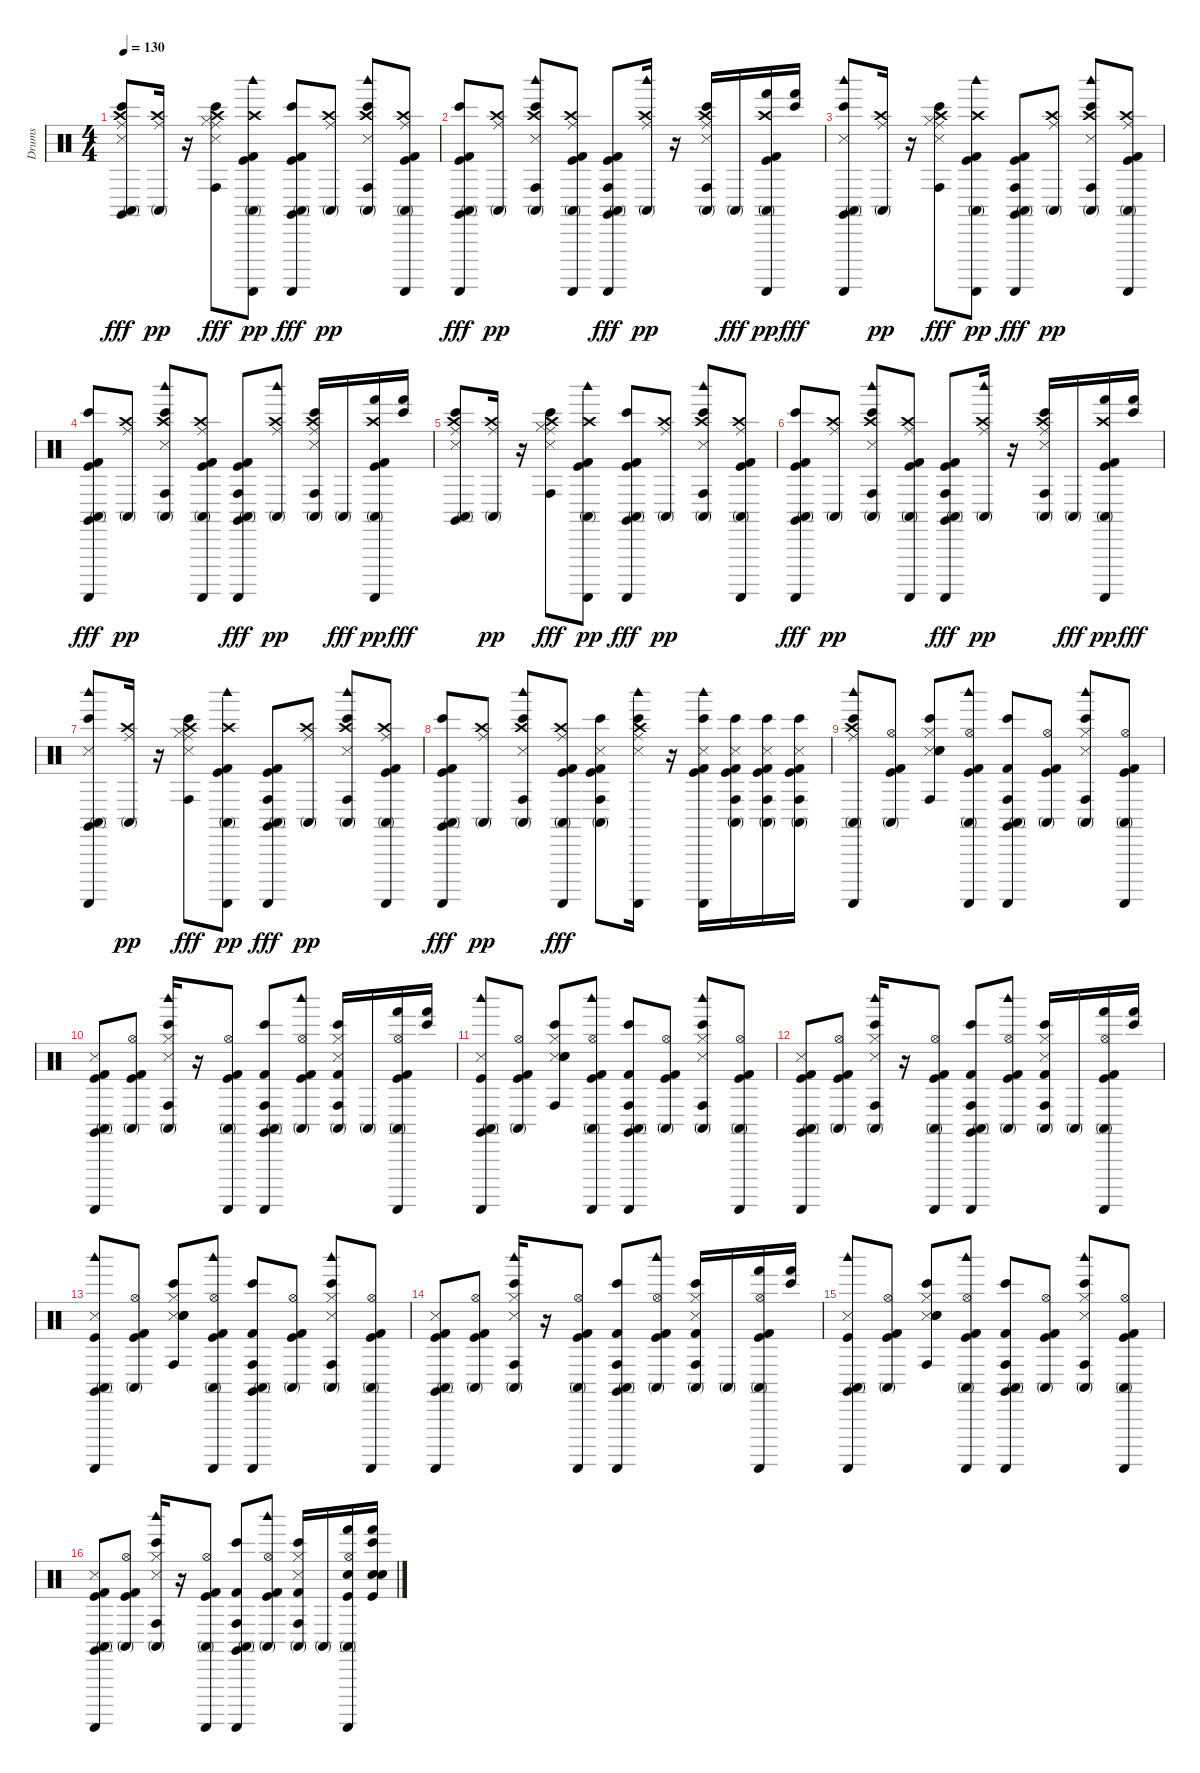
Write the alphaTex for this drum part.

\track ("Drums" "Drums") {instrument percussion}
\staff {score}
\articulation defaults
\ts (4 4)
\tempo 130
\clef neutral
\ks c
("Ride (middle)" "Crash high (hit)" "Snare (side stick) 3" "Conga high (mute)" "Bongo High (hit)" "Claves (hit)").8{dy fff} ("Conga high (mute)" "Crash high (hit)" "Ride (middle)").16{dy pp} r.16 ("Bongo High (hit)" "Conga high (hit)" "Snare (side stick) 3" "Crash high (hit)" "Ride (middle)" "Hi-Hat (closed)").8{dy fff} ("Kick (hit) 2" "Kick (hit)" "Guiro (scrap-return)" "Woodblock high (hit)" "Conga high (mute)" "Crash high (hit)").8{dy pp} ("Kick (hit) 2" "Kick (hit)" "Guiro (scrap-return)" "Claves (hit)" "Bongo High (hit)" "Conga high (mute)").8{dy fff} ("Conga high (mute)" "Crash high (hit)" "Ride (middle)").8{dy pp} ("Woodblock high (hit)" "Bongo High (hit)" "Conga high (mute)" "Conga high (hit)" "Snare (side stick) 3" "Crash high (hit)").8 ("Kick (hit) 2" "Kick (hit)" "Guiro (scrap-return)" "Conga high (mute)" "Crash high (hit)" "Ride (middle)").8 |
("Kick (hit) 2" "Kick (hit)" "Guiro (scrap-return)" "Claves (hit)" "Conga high (mute)" "Bongo High (hit)").8{dy fff} ("Conga high (mute)" "Crash high (hit)" "Ride (middle)").8{dy pp} ("Woodblock high (hit)" "Conga high (mute)" "Conga high (hit)" "Bongo High (hit)" "Snare (side stick) 3" "Crash high (hit)").8 ("Kick (hit) 2" "Kick (hit)" "Guiro (scrap-return)" "Conga high (mute)" "Crash high (hit)" "Ride (middle)").8 ("Kick (hit)" "Kick (hit) 2" "Guiro (scrap-return)" "Claves (hit)" "Conga high (mute)" "Conga high (hit)").8{dy fff} ("Woodblock high (hit)" "Conga high (mute)" "Crash high (hit)" "Ride (middle)").16{dy pp} r.16 ("Conga high (mute)" "Conga high (hit)" "Bongo High (hit)" "Snare (side stick) 3" "Crash high (hit)" "Ride (middle)").16 "Conga high (mute)".16{dy fff} ("Kick (hit) 2" "Kick (hit)" "Guiro (scrap-return)" "Hand (hit)" "Conga high (mute)" "Crash high (hit)").16{dy pp} ("Bongo High (hit)" "Hand (hit)").16{dy fff} |
("Guiro (scrap-return)" "Woodblock high (hit)" "Claves (hit)" "Conga high (mute)" "Snare (side stick) 3" "Bongo High (hit)").8 ("Conga high (mute)" "Crash high (hit)" "Ride (middle)").16{dy pp} r.16 ("Conga high (hit)" "Bongo High (hit)" "Snare (side stick) 3" "Crash high (hit)" "Ride (middle)" "Hi-Hat (closed)").8{dy fff} ("Guiro (scrap-return)" "Woodblock high (hit)" "Conga high (mute)" "Kick (hit) 2" "Kick (hit)" "Crash high (hit)").8{dy pp} ("Guiro (scrap-return)" "Claves (hit)" "Conga high (mute)" "Conga high (hit)" "Kick (hit) 2" "Kick (hit)").8{dy fff} ("Conga high (mute)" "Crash high (hit)" "Ride (middle)").8{dy pp} ("Woodblock high (hit)" "Conga high (mute)" "Conga high (hit)" "Bongo High (hit)" "Snare (side stick) 3" "Crash high (hit)").8 ("Guiro (scrap-return)" "Conga high (mute)" "Kick (hit) 2" "Kick (hit)" "Crash high (hit)" "Ride (middle)").8 |
("Guiro (scrap-return)" "Claves (hit)" "Conga high (mute)" "Kick (hit) 2" "Kick (hit)" "Bongo High (hit)").8{dy fff} ("Conga high (mute)" "Crash high (hit)" "Ride (middle)").8{dy pp} ("Woodblock high (hit)" "Conga high (mute)" "Conga high (hit)" "Bongo High (hit)" "Snare (side stick) 3" "Crash high (hit)").8 ("Guiro (scrap-return)" "Conga high (mute)" "Kick (hit) 2" "Kick (hit)" "Crash high (hit)" "Ride (middle)").8 ("Guiro (scrap-return)" "Claves (hit)" "Conga high (mute)" "Conga high (hit)" "Kick (hit)" "Kick (hit) 2").8{dy fff} ("Woodblock high (hit)" "Conga high (mute)" "Crash high (hit)" "Ride (middle)").8{dy pp} ("Conga high (mute)" "Conga high (hit)" "Bongo High (hit)" "Snare (side stick) 3" "Crash high (hit)" "Ride (middle)").16 "Conga high (mute)".16{dy fff} ("Guiro (scrap-return)" "Hand (hit)" "Conga high (mute)" "Kick (hit) 2" "Kick (hit)" "Crash high (hit)").16{dy pp} ("Bongo High (hit)" "Hand (hit)").16{dy fff} |
("Ride (middle)" "Crash high (hit)" "Snare (side stick) 3" "Conga high (mute)" "Bongo High (hit)" "Claves (hit)").8 ("Conga high (mute)" "Crash high (hit)" "Ride (middle)").16{dy pp} r.16 ("Bongo High (hit)" "Conga high (hit)" "Snare (side stick) 3" "Crash high (hit)" "Ride (middle)" "Hi-Hat (closed)").8{dy fff} ("Kick (hit) 2" "Kick (hit)" "Guiro (scrap-return)" "Woodblock high (hit)" "Conga high (mute)" "Crash high (hit)").8{dy pp} ("Kick (hit) 2" "Kick (hit)" "Guiro (scrap-return)" "Claves (hit)" "Bongo High (hit)" "Conga high (mute)").8{dy fff} ("Conga high (mute)" "Crash high (hit)" "Ride (middle)").8{dy pp} ("Woodblock high (hit)" "Bongo High (hit)" "Conga high (mute)" "Conga high (hit)" "Snare (side stick) 3" "Crash high (hit)").8 ("Kick (hit) 2" "Kick (hit)" "Guiro (scrap-return)" "Conga high (mute)" "Crash high (hit)" "Ride (middle)").8 |
("Kick (hit) 2" "Kick (hit)" "Guiro (scrap-return)" "Claves (hit)" "Conga high (mute)" "Bongo High (hit)").8{dy fff} ("Conga high (mute)" "Crash high (hit)" "Ride (middle)").8{dy pp} ("Woodblock high (hit)" "Conga high (mute)" "Conga high (hit)" "Bongo High (hit)" "Snare (side stick) 3" "Crash high (hit)").8 ("Kick (hit) 2" "Kick (hit)" "Guiro (scrap-return)" "Conga high (mute)" "Crash high (hit)" "Ride (middle)").8 ("Kick (hit)" "Kick (hit) 2" "Guiro (scrap-return)" "Claves (hit)" "Conga high (mute)" "Conga high (hit)").8{dy fff} ("Woodblock high (hit)" "Conga high (mute)" "Crash high (hit)" "Ride (middle)").16{dy pp} r.16 ("Conga high (mute)" "Conga high (hit)" "Bongo High (hit)" "Snare (side stick) 3" "Crash high (hit)" "Ride (middle)").16 "Conga high (mute)".16{dy fff} ("Kick (hit) 2" "Kick (hit)" "Guiro (scrap-return)" "Hand (hit)" "Conga high (mute)" "Crash high (hit)").16{dy pp} ("Bongo High (hit)" "Hand (hit)").16{dy fff} |
("Guiro (scrap-return)" "Woodblock high (hit)" "Claves (hit)" "Conga high (mute)" "Snare (side stick) 3" "Bongo High (hit)").8 ("Conga high (mute)" "Crash high (hit)" "Ride (middle)").16{dy pp} r.16 ("Conga high (hit)" "Bongo High (hit)" "Snare (side stick) 3" "Crash high (hit)" "Ride (middle)" "Hi-Hat (closed)").8{dy fff} ("Guiro (scrap-return)" "Woodblock high (hit)" "Conga high (mute)" "Kick (hit) 2" "Kick (hit)" "Crash high (hit)").8{dy pp} ("Guiro (scrap-return)" "Claves (hit)" "Conga high (mute)" "Conga high (hit)" "Kick (hit) 2" "Kick (hit)").8{dy fff} ("Conga high (mute)" "Crash high (hit)" "Ride (middle)").8{dy pp} ("Woodblock high (hit)" "Conga high (mute)" "Conga high (hit)" "Bongo High (hit)" "Snare (side stick) 3" "Crash high (hit)").8 ("Guiro (scrap-return)" "Conga high (mute)" "Kick (hit) 2" "Kick (hit)" "Crash high (hit)" "Ride (middle)").8 |
("Guiro (scrap-return)" "Claves (hit)" "Conga high (mute)" "Kick (hit) 2" "Kick (hit)" "Bongo High (hit)").8{dy fff} ("Conga high (mute)" "Crash high (hit)" "Ride (middle)").8{dy pp} ("Woodblock high (hit)" "Conga high (mute)" "Conga high (hit)" "Bongo High (hit)" "Snare (side stick) 3" "Crash high (hit)").8 ("Conga high (mute)" "Kick (hit) 2" "Kick (hit)" "Crash high (hit)" "Ride (middle)" "Guiro (scrap-return)").8{dy fff} ("Conga high (mute)" "Conga high (hit)" "Kick (hit)" "Kick (hit) 2" "Bongo High (hit)" "Snare (side stick) 3").8 ("Woodblock high (hit)" "Guiro (scrap-return)" "Ride (middle)" "Crash high (hit)" "Snare (side stick) 3" "Bongo High (hit)").16 r.16 ("Woodblock high (hit)" "Guiro (scrap-return)" "Snare (side stick) 3" "Bongo High (hit)" "Kick (hit) 2" "Kick (hit)").16 ("Conga high (mute)" "Conga high (hit)" "Kick (hit)" "Kick (hit) 2" "Bongo High (hit)" "Snare (side stick) 3").16 ("Conga high (mute)" "Conga high (hit)" "Kick (hit)" "Kick (hit) 2" "Bongo High (hit)" "Snare (side stick) 3").16 ("Conga high (mute)" "Conga high (hit)" "Kick (hit)" "Kick (hit) 2" "Bongo High (hit)" "Snare (side stick) 3").16 |
("Guiro (scrap-return)" "Woodblock high (hit)" "Bongo High (hit)" "Conga high (mute)" "Crash high (hit)" "Ride (middle)").8 ("Conga high (mute)" "Hi-Hat (open)" "Kick (hit)" "Kick (hit) 2").8 ("Bongo High (hit)" "Conga high (hit)" "Snare (side stick) 3" "Hi-Hat (closed)" "Electric Snare (hit)" "Snare (hit) 2").8 ("Kick (hit) 2" "Kick (hit)" "Guiro (scrap-return)" "Woodblock high (hit)" "Conga high (mute)" "Hi-Hat (open)").8 ("Kick (hit) 2" "Guiro (scrap-return)" "Claves (hit)" "Bongo High (hit)" "Conga high (mute)" "Conga high (hit)").8 ("Conga high (mute)" "Hi-Hat (open)" "Kick (hit) 2" "Kick (hit)").8 ("Woodblock high (hit)" "Bongo High (hit)" "Conga high (mute)" "Conga high (hit)" "Snare (side stick) 3" "Hi-Hat (closed)").8 ("Kick (hit) 2" "Kick (hit)" "Guiro (scrap-return)" "Conga high (mute)" "Hi-Hat (open)").8 |
("Guiro (scrap-return)" "Claves (hit)" "Conga high (mute)" "Snare (side stick) 3" "Kick (hit)" "Kick (hit) 2").8 ("Conga high (mute)" "Hi-Hat (open)" "Kick (hit)" "Kick (hit) 2").8 ("Woodblock high (hit)" "Conga high (mute)" "Conga high (hit)" "Bongo High (hit)" "Snare (side stick) 3" "Hi-Hat (closed)").16 r.16 ("Guiro (scrap-return)" "Conga high (mute)" "Kick (hit) 2" "Kick (hit)" "Hi-Hat (open)").8 ("Guiro (scrap-return)" "Claves (hit)" "Conga high (mute)" "Conga high (hit)" "Kick (hit) 2" "Bongo High (hit)").8 ("Woodblock high (hit)" "Conga high (mute)" "Hi-Hat (open)" "Kick (hit) 2" "Kick (hit)").8 ("Conga high (mute)" "Conga high (hit)" "Bongo High (hit)" "Snare (side stick) 3" "Hi-Hat (closed)" "Kick (hit) 2").16 "Conga high (mute)".16 ("Guiro (scrap-return)" "Hand (hit)" "Conga high (mute)" "Kick (hit) 2" "Kick (hit)" "Hi-Hat (open)").16 ("Bongo High (hit)" "Hand (hit)").16 |
("Guiro (scrap-return)" "Woodblock high (hit)" "Claves (hit)" "Conga high (mute)" "Snare (side stick) 3" "Kick (hit)").8 ("Conga high (mute)" "Hi-Hat (open)" "Kick (hit)" "Kick (hit) 2").8 ("Conga high (hit)" "Bongo High (hit)" "Snare (side stick) 3" "Hi-Hat (closed)" "Electric Snare (hit)" "Snare (hit) 2").8 ("Guiro (scrap-return)" "Woodblock high (hit)" "Conga high (mute)" "Kick (hit) 2" "Kick (hit)" "Hi-Hat (open)").8 ("Guiro (scrap-return)" "Claves (hit)" "Conga high (mute)" "Conga high (hit)" "Kick (hit) 2" "Bongo High (hit)").8 ("Conga high (mute)" "Hi-Hat (open)" "Kick (hit) 2" "Kick (hit)").8 ("Woodblock high (hit)" "Conga high (mute)" "Conga high (hit)" "Bongo High (hit)" "Snare (side stick) 3" "Hi-Hat (closed)").8 ("Guiro (scrap-return)" "Conga high (mute)" "Kick (hit) 2" "Kick (hit)" "Hi-Hat (open)").8 |
("Guiro (scrap-return)" "Claves (hit)" "Conga high (mute)" "Snare (side stick) 3" "Kick (hit)" "Kick (hit) 2").8 ("Conga high (mute)" "Hi-Hat (open)" "Kick (hit)" "Kick (hit) 2").8 ("Woodblock high (hit)" "Conga high (mute)" "Conga high (hit)" "Bongo High (hit)" "Snare (side stick) 3" "Hi-Hat (closed)").16 r.16 ("Guiro (scrap-return)" "Conga high (mute)" "Kick (hit) 2" "Kick (hit)" "Hi-Hat (open)").8 ("Guiro (scrap-return)" "Claves (hit)" "Conga high (mute)" "Conga high (hit)" "Kick (hit) 2" "Bongo High (hit)").8 ("Woodblock high (hit)" "Conga high (mute)" "Hi-Hat (open)" "Kick (hit) 2" "Kick (hit)").8 ("Conga high (mute)" "Conga high (hit)" "Bongo High (hit)" "Snare (side stick) 3" "Hi-Hat (closed)" "Kick (hit) 2").16 "Conga high (mute)".16 ("Guiro (scrap-return)" "Hand (hit)" "Conga high (mute)" "Kick (hit) 2" "Kick (hit)" "Hi-Hat (open)").16 ("Bongo High (hit)" "Hand (hit)").16 |
("Conga high (mute)" "Claves (hit)" "Woodblock high (hit)" "Guiro (scrap-return)" "Snare (side stick) 3" "Kick (hit)").8 ("Conga high (mute)" "Hi-Hat (open)" "Kick (hit)" "Kick (hit) 2").8 ("Conga high (hit)" "Bongo High (hit)" "Snare (side stick) 3" "Hi-Hat (closed)" "Electric Snare (hit)" "Snare (hit) 2").8 ("Guiro (scrap-return)" "Woodblock high (hit)" "Conga high (mute)" "Kick (hit) 2" "Kick (hit)" "Hi-Hat (open)").8 ("Guiro (scrap-return)" "Claves (hit)" "Conga high (mute)" "Conga high (hit)" "Kick (hit) 2" "Bongo High (hit)").8 ("Conga high (mute)" "Hi-Hat (open)" "Kick (hit) 2" "Kick (hit)").8 ("Woodblock high (hit)" "Conga high (mute)" "Conga high (hit)" "Bongo High (hit)" "Snare (side stick) 3" "Hi-Hat (closed)").8 ("Guiro (scrap-return)" "Conga high (mute)" "Kick (hit) 2" "Kick (hit)" "Hi-Hat (open)").8 |
("Guiro (scrap-return)" "Claves (hit)" "Conga high (mute)" "Snare (side stick) 3" "Kick (hit)" "Kick (hit) 2").8 ("Conga high (mute)" "Hi-Hat (open)" "Kick (hit)" "Kick (hit) 2").8 ("Woodblock high (hit)" "Conga high (mute)" "Conga high (hit)" "Bongo High (hit)" "Snare (side stick) 3" "Hi-Hat (closed)").16 r.16 ("Guiro (scrap-return)" "Conga high (mute)" "Kick (hit) 2" "Kick (hit)" "Hi-Hat (open)").8 ("Guiro (scrap-return)" "Claves (hit)" "Conga high (mute)" "Conga high (hit)" "Kick (hit) 2" "Bongo High (hit)").8 ("Woodblock high (hit)" "Conga high (mute)" "Hi-Hat (open)" "Kick (hit) 2" "Kick (hit)").8 ("Conga high (mute)" "Conga high (hit)" "Bongo High (hit)" "Snare (side stick) 3" "Hi-Hat (closed)" "Kick (hit) 2").16 "Conga high (mute)".16 ("Guiro (scrap-return)" "Hand (hit)" "Conga high (mute)" "Kick (hit) 2" "Kick (hit)" "Hi-Hat (open)").16 ("Bongo High (hit)" "Hand (hit)").16 |
("Guiro (scrap-return)" "Woodblock high (hit)" "Claves (hit)" "Conga high (mute)" "Snare (side stick) 3" "Kick (hit)").8 ("Conga high (mute)" "Hi-Hat (open)" "Kick (hit)" "Kick (hit) 2").8 ("Conga high (hit)" "Bongo High (hit)" "Snare (side stick) 3" "Hi-Hat (closed)" "Electric Snare (hit)" "Snare (hit) 2").8 ("Guiro (scrap-return)" "Woodblock high (hit)" "Conga high (mute)" "Kick (hit) 2" "Kick (hit)" "Hi-Hat (open)").8 ("Guiro (scrap-return)" "Claves (hit)" "Conga high (mute)" "Conga high (hit)" "Kick (hit) 2" "Bongo High (hit)").8 ("Conga high (mute)" "Hi-Hat (open)" "Kick (hit) 2" "Kick (hit)").8 ("Woodblock high (hit)" "Conga high (mute)" "Conga high (hit)" "Bongo High (hit)" "Snare (side stick) 3" "Hi-Hat (closed)").8 ("Guiro (scrap-return)" "Conga high (mute)" "Kick (hit) 2" "Kick (hit)" "Hi-Hat (open)").8 |
("Guiro (scrap-return)" "Claves (hit)" "Conga high (mute)" "Snare (side stick) 3" "Kick (hit)" "Kick (hit) 2").8 ("Conga high (mute)" "Hi-Hat (open)" "Kick (hit)" "Kick (hit) 2").8 ("Woodblock high (hit)" "Conga high (mute)" "Conga high (hit)" "Bongo High (hit)" "Snare (side stick) 3" "Hi-Hat (closed)").16 r.16 ("Guiro (scrap-return)" "Conga high (mute)" "Kick (hit) 2" "Kick (hit)" "Hi-Hat (open)").8 ("Guiro (scrap-return)" "Claves (hit)" "Conga high (mute)" "Conga high (hit)" "Kick (hit) 2" "Bongo High (hit)").8 ("Woodblock high (hit)" "Conga high (mute)" "Hi-Hat (open)" "Kick (hit) 2" "Kick (hit)").8 ("Conga high (mute)" "Conga high (hit)" "Bongo High (hit)" "Snare (side stick) 3" "Hi-Hat (closed)" "Kick (hit) 2").16 "Conga high (mute)".16 ("Guiro (scrap-return)" "Hand (hit)" "Conga high (mute)" "Kick (hit)" "Hi-Hat (open)" "Electric Snare (hit)").16 ("Bongo High (hit)" "Hand (hit)" "Electric Snare (hit)" "Snare (hit) 2" "Kick (hit)").16
